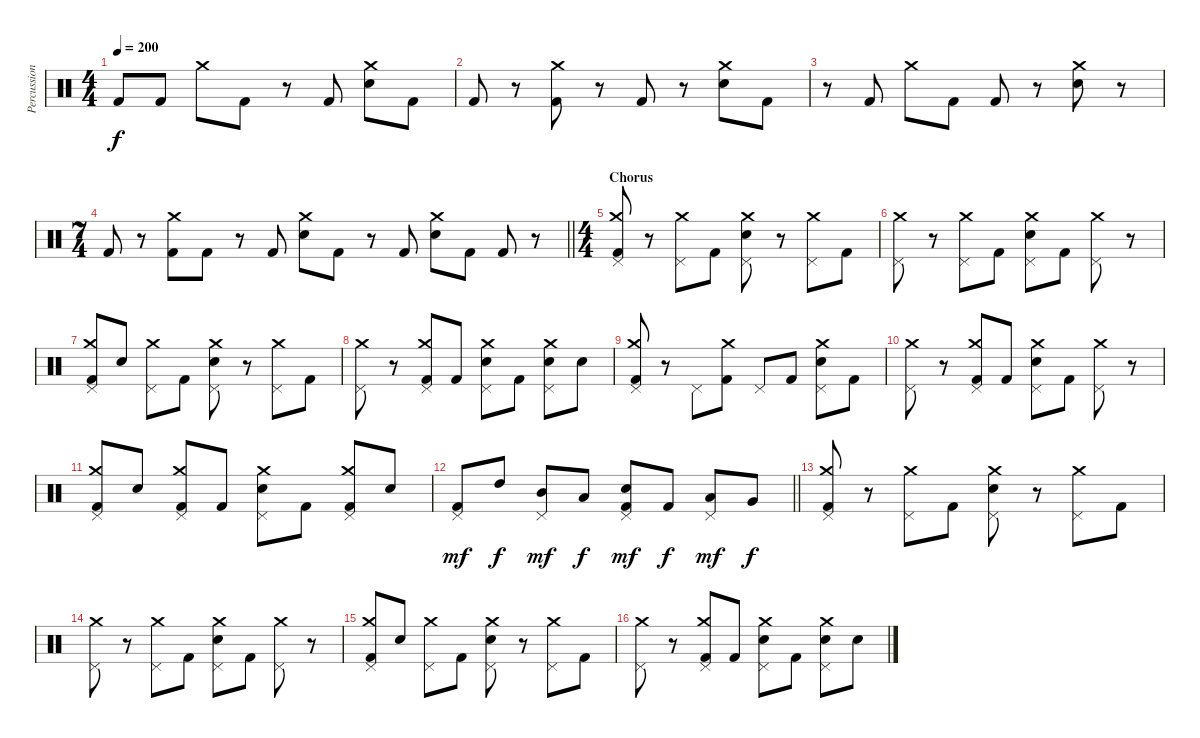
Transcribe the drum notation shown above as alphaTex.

\track ("Percussions" "Percussion") {instrument percussion}
\staff {score}
\articulation defaults
\ts (4 4)
\tempo 200
\clef neutral
\ks c "Kick (hit) 2".8{dy f} "Kick (hit) 2".8 "Crash medium (hit)".8 "Kick (hit) 2".8
r.8 "Kick (hit) 2".8 ("Crash medium (hit)" "Electric Snare (hit)").8 "Kick (hit) 2".8 |
"Kick (hit) 2".8 r.8 ("Crash medium (hit)" "Kick (hit) 2").8 r.8 "Kick (hit) 2".8 r.8 ("Crash medium (hit)" "Electric Snare (hit)").8 "Kick (hit) 2".8 |
r.8 "Kick (hit) 2".8 "Crash medium (hit)".8 "Kick (hit) 2".8 "Kick (hit) 2".8 r.8 ("Crash medium (hit)" "Electric Snare (hit)").8 r.8 |
\ts (7 4)
\barLineRight lightlight "Kick (hit) 2".8
r.8 ("Crash medium (hit)" "Kick (hit) 2").8 "Kick (hit) 2".8 r.8 "Kick (hit) 2".8 ("Crash medium (hit)" "Electric Snare (hit)").8 "Kick (hit) 2".8 r.8 "Kick (hit) 2".8 ("Crash medium (hit)" "Electric Snare (hit)").8 "Kick (hit) 2".8 "Kick (hit) 2".8 r.8 |
\ts (4 4)
\section ("" "Chorus")
("Crash medium (hit)" "Pedal Hi-Hat (hit)" "Kick (hit) 2").8 r.8 ("Crash medium (hit)" "Pedal Hi-Hat (hit)").8 "Kick (hit) 2".8 ("Crash medium (hit)" "Pedal Hi-Hat (hit)" "Electric Snare (hit)").8 r.8 ("Crash medium (hit)" "Pedal Hi-Hat (hit)").8 "Kick (hit) 2".8 |
("Crash medium (hit)" "Pedal Hi-Hat (hit)").8 r.8 ("Crash medium (hit)" "Pedal Hi-Hat (hit)").8 "Kick (hit) 2".8 ("Crash medium (hit)" "Pedal Hi-Hat (hit)" "Electric Snare (hit)").8 "Kick (hit) 2".8 ("Crash medium (hit)" "Pedal Hi-Hat (hit)").8 r.8 |
("Crash medium (hit)" "Pedal Hi-Hat (hit)" "Kick (hit) 2").8 "Electric Snare (hit)".8 ("Crash medium (hit)" "Pedal Hi-Hat (hit)").8 "Kick (hit) 2".8 ("Crash medium (hit)" "Pedal Hi-Hat (hit)" "Electric Snare (hit)").8 r.8 ("Crash medium (hit)" "Pedal Hi-Hat (hit)").8 "Kick (hit) 2".8 |
("Crash medium (hit)" "Pedal Hi-Hat (hit)").8 r.8 ("Crash medium (hit)" "Pedal Hi-Hat (hit)" "Kick (hit) 2").8 "Kick (hit) 2".8 ("Crash medium (hit)" "Pedal Hi-Hat (hit)" "Electric Snare (hit)").8 "Kick (hit) 2".8 ("Crash medium (hit)" "Pedal Hi-Hat (hit)" "Electric Snare (hit)").8 "Electric Snare (hit)".8 |
("Crash medium (hit)" "Pedal Hi-Hat (hit)" "Kick (hit) 2").8 r.8 "Pedal Hi-Hat (hit)".8 ("Crash medium (hit)" "Kick (hit) 2").8 "Pedal Hi-Hat (hit)".8 "Kick (hit) 2".8 ("Crash medium (hit)" "Pedal Hi-Hat (hit)" "Electric Snare (hit)").8 "Kick (hit) 2".8 |
("Crash medium (hit)" "Pedal Hi-Hat (hit)").8 r.8 ("Crash medium (hit)" "Pedal Hi-Hat (hit)" "Kick (hit) 2").8 "Kick (hit) 2".8 ("Crash medium (hit)" "Pedal Hi-Hat (hit)" "Electric Snare (hit)").8 "Kick (hit) 2".8 ("Crash medium (hit)" "Pedal Hi-Hat (hit)").8 r.8 |
("Crash medium (hit)" "Pedal Hi-Hat (hit)" "Kick (hit) 2").8 "Electric Snare (hit)".8 ("Crash medium (hit)" "Pedal Hi-Hat (hit)" "Kick (hit) 2").8 "Kick (hit) 2".8 ("Crash medium (hit)" "Pedal Hi-Hat (hit)" "Electric Snare (hit)").8 "Kick (hit) 2".8 ("Crash medium (hit)" "Pedal Hi-Hat (hit)" "Kick (hit) 2").8 "Electric Snare (hit)".8 |
\barLineRight lightlight
("Pedal Hi-Hat (hit)" "Kick (hit) 2").8{dy mf} "High Tom (hit)".8{dy f} ("Pedal Hi-Hat (hit)" "Mid Tom (hit)").8{dy mf} "Low Tom (hit)".8{dy f} ("Pedal Hi-Hat (hit)" "Electric Snare (hit)" "Kick (hit) 2").8{dy mf} "Kick (hit) 2".8{dy f} ("Pedal Hi-Hat (hit)" "Low Tom (hit)").8{dy mf} "Very Low Tom (hit)".8{dy f} |
("Crash medium (hit)" "Pedal Hi-Hat (hit)" "Kick (hit) 2").8 r.8 ("Crash medium (hit)" "Pedal Hi-Hat (hit)").8 "Kick (hit) 2".8 ("Crash medium (hit)" "Pedal Hi-Hat (hit)" "Electric Snare (hit)").8 r.8 ("Crash medium (hit)" "Pedal Hi-Hat (hit)").8 "Kick (hit) 2".8 |
("Crash medium (hit)" "Pedal Hi-Hat (hit)").8 r.8 ("Crash medium (hit)" "Pedal Hi-Hat (hit)").8 "Kick (hit) 2".8 ("Crash medium (hit)" "Pedal Hi-Hat (hit)" "Electric Snare (hit)").8 "Kick (hit) 2".8 ("Crash medium (hit)" "Pedal Hi-Hat (hit)").8 r.8 |
("Crash medium (hit)" "Pedal Hi-Hat (hit)" "Kick (hit) 2").8 "Electric Snare (hit)".8 ("Crash medium (hit)" "Pedal Hi-Hat (hit)").8 "Kick (hit) 2".8 ("Crash medium (hit)" "Pedal Hi-Hat (hit)" "Electric Snare (hit)").8 r.8 ("Crash medium (hit)" "Pedal Hi-Hat (hit)").8 "Kick (hit) 2".8 |
("Crash medium (hit)" "Pedal Hi-Hat (hit)").8 r.8 ("Crash medium (hit)" "Pedal Hi-Hat (hit)" "Kick (hit) 2").8 "Kick (hit) 2".8 ("Crash medium (hit)" "Pedal Hi-Hat (hit)" "Electric Snare (hit)").8 "Kick (hit) 2".8 ("Crash medium (hit)" "Pedal Hi-Hat (hit)" "Electric Snare (hit)").8 "Electric Snare (hit)".8
